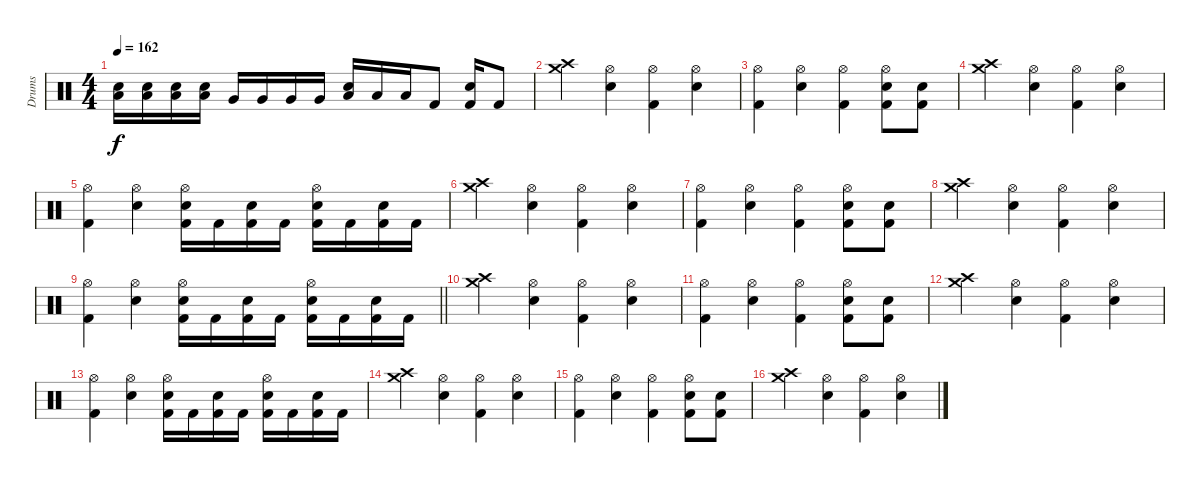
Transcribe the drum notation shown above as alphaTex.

\track ("Drums" "Drums") {instrument percussion}
\staff {score}
\articulation defaults
\ts (4 4)
\tempo 162
\clef neutral
\ks c
("Electric Snare (hit)" "Low Tom (hit)").16{dy f} ("Electric Snare (hit)" "Low Tom (hit)").16 ("Electric Snare (hit)" "Low Tom (hit)").16 ("Electric Snare (hit)" "Low Tom (hit)").16 "Very Low Tom (hit)".16 "Very Low Tom (hit)".16 "Very Low Tom (hit)".16 "Very Low Tom (hit)".16 ("Electric Snare (hit)" "Low Floor Tom (hit)").16 "Low Floor Tom (hit)".16 "Low Floor Tom (hit)".16 "Kick (hit) 2".8 ("Electric Snare (hit)" "Kick (hit) 2").16 "Kick (hit) 2".8 |
("Crash high (hit)" "Crash medium (hit)").4 ("Hi-Hat (open)" "Electric Snare (hit)").4 ("Hi-Hat (open)" "Kick (hit) 2").4 ("Hi-Hat (open)" "Electric Snare (hit)").4 |
("Hi-Hat (open)" "Kick (hit) 2").4 ("Hi-Hat (open)" "Electric Snare (hit)").4 ("Hi-Hat (open)" "Kick (hit) 2").4 ("Hi-Hat (open)" "Electric Snare (hit)" "Kick (hit) 2").8 ("Electric Snare (hit)" "Kick (hit) 2").8 |
("Crash high (hit)" "Crash medium (hit)").4 ("Hi-Hat (open)" "Electric Snare (hit)").4 ("Hi-Hat (open)" "Kick (hit) 2").4 ("Hi-Hat (open)" "Electric Snare (hit)").4 |
("Hi-Hat (open)" "Kick (hit) 2").4 ("Hi-Hat (open)" "Electric Snare (hit)").4 ("Hi-Hat (open)" "Electric Snare (hit)" "Kick (hit) 2").16 "Kick (hit) 2".16 ("Electric Snare (hit)" "Kick (hit) 2").16 "Kick (hit) 2".16 ("Hi-Hat (open)" "Electric Snare (hit)" "Kick (hit) 2").16 "Kick (hit) 2".16 ("Electric Snare (hit)" "Kick (hit) 2").16 "Kick (hit) 2".16 |
("Crash high (hit)" "Crash medium (hit)").4 ("Hi-Hat (open)" "Electric Snare (hit)").4 ("Hi-Hat (open)" "Kick (hit) 2").4 ("Hi-Hat (open)" "Electric Snare (hit)").4 |
("Hi-Hat (open)" "Kick (hit) 2").4 ("Hi-Hat (open)" "Electric Snare (hit)").4 ("Hi-Hat (open)" "Kick (hit) 2").4 ("Hi-Hat (open)" "Electric Snare (hit)" "Kick (hit) 2").8 ("Electric Snare (hit)" "Kick (hit) 2").8 |
("Crash high (hit)" "Crash medium (hit)").4 ("Hi-Hat (open)" "Electric Snare (hit)").4 ("Hi-Hat (open)" "Kick (hit) 2").4 ("Hi-Hat (open)" "Electric Snare (hit)").4 |
\barLineRight lightlight
("Hi-Hat (open)" "Kick (hit) 2").4 ("Hi-Hat (open)" "Electric Snare (hit)").4 ("Hi-Hat (open)" "Electric Snare (hit)" "Kick (hit) 2").16 "Kick (hit) 2".16 ("Electric Snare (hit)" "Kick (hit) 2").16 "Kick (hit) 2".16 ("Hi-Hat (open)" "Electric Snare (hit)" "Kick (hit) 2").16 "Kick (hit) 2".16 ("Electric Snare (hit)" "Kick (hit) 2").16 "Kick (hit) 2".16 |
("Crash high (hit)" "Crash medium (hit)").4 ("Hi-Hat (open)" "Electric Snare (hit)").4 ("Hi-Hat (open)" "Kick (hit) 2").4 ("Hi-Hat (open)" "Electric Snare (hit)").4 |
("Hi-Hat (open)" "Kick (hit) 2").4 ("Hi-Hat (open)" "Electric Snare (hit)").4 ("Hi-Hat (open)" "Kick (hit) 2").4 ("Hi-Hat (open)" "Electric Snare (hit)" "Kick (hit) 2").8 ("Electric Snare (hit)" "Kick (hit) 2").8 |
("Crash high (hit)" "Crash medium (hit)").4 ("Hi-Hat (open)" "Electric Snare (hit)").4 ("Hi-Hat (open)" "Kick (hit) 2").4 ("Hi-Hat (open)" "Electric Snare (hit)").4 |
("Hi-Hat (open)" "Kick (hit) 2").4 ("Hi-Hat (open)" "Electric Snare (hit)").4 ("Hi-Hat (open)" "Electric Snare (hit)" "Kick (hit) 2").16 "Kick (hit) 2".16 ("Electric Snare (hit)" "Kick (hit) 2").16 "Kick (hit) 2".16 ("Hi-Hat (open)" "Electric Snare (hit)" "Kick (hit) 2").16 "Kick (hit) 2".16 ("Electric Snare (hit)" "Kick (hit) 2").16 "Kick (hit) 2".16 |
("Crash high (hit)" "Crash medium (hit)").4 ("Hi-Hat (open)" "Electric Snare (hit)").4 ("Hi-Hat (open)" "Kick (hit) 2").4 ("Hi-Hat (open)" "Electric Snare (hit)").4 |
("Hi-Hat (open)" "Kick (hit) 2").4 ("Hi-Hat (open)" "Electric Snare (hit)").4 ("Hi-Hat (open)" "Kick (hit) 2").4 ("Hi-Hat (open)" "Electric Snare (hit)" "Kick (hit) 2").8 ("Electric Snare (hit)" "Kick (hit) 2").8 |
("Crash high (hit)" "Crash medium (hit)").4 ("Hi-Hat (open)" "Electric Snare (hit)").4 ("Hi-Hat (open)" "Kick (hit) 2").4 ("Hi-Hat (open)" "Electric Snare (hit)").4
